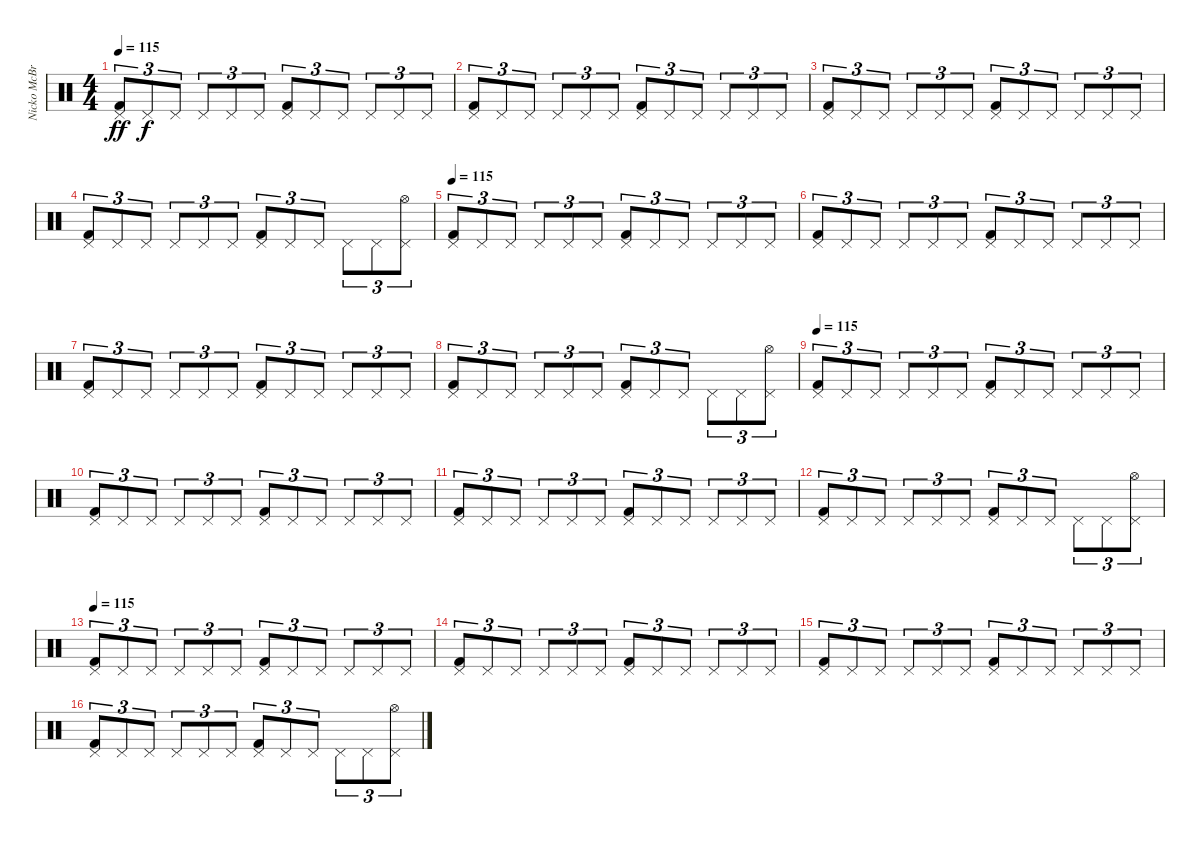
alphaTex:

\track ("Nicko McBrain" "Nicko McBr") {instrument percussion}
\staff {score}
\articulation defaults
\ts (4 4)
\tempo 115
\clef neutral
\ks c
("Pedal Hi-Hat (hit)" "Kick (hit) 2").8{tu (3 2) dy ff volume 5} "Pedal Hi-Hat (hit)".8{tu (3 2) dy f} "Pedal Hi-Hat (hit)".8{tu (3 2)} "Pedal Hi-Hat (hit)".8{tu (3 2)} "Pedal Hi-Hat (hit)".8{tu (3 2)} "Pedal Hi-Hat (hit)".8{tu (3 2)} ("Pedal Hi-Hat (hit)" "Kick (hit) 2").8{tu (3 2)} "Pedal Hi-Hat (hit)".8{tu (3 2)} "Pedal Hi-Hat (hit)".8{tu (3 2)} "Pedal Hi-Hat (hit)".8{tu (3 2)} "Pedal Hi-Hat (hit)".8{tu (3 2)} "Pedal Hi-Hat (hit)".8{tu (3 2)} |
("Pedal Hi-Hat (hit)" "Kick (hit) 2").8{tu (3 2) volume 6} "Pedal Hi-Hat (hit)".8{tu (3 2)} "Pedal Hi-Hat (hit)".8{tu (3 2)} "Pedal Hi-Hat (hit)".8{tu (3 2)} "Pedal Hi-Hat (hit)".8{tu (3 2)} "Pedal Hi-Hat (hit)".8{tu (3 2)} ("Pedal Hi-Hat (hit)" "Kick (hit) 2").8{tu (3 2)} "Pedal Hi-Hat (hit)".8{tu (3 2)} "Pedal Hi-Hat (hit)".8{tu (3 2)} "Pedal Hi-Hat (hit)".8{tu (3 2)} "Pedal Hi-Hat (hit)".8{tu (3 2)} "Pedal Hi-Hat (hit)".8{tu (3 2)} |
("Pedal Hi-Hat (hit)" "Kick (hit) 2").8{tu (3 2) volume 7} "Pedal Hi-Hat (hit)".8{tu (3 2)} "Pedal Hi-Hat (hit)".8{tu (3 2)} "Pedal Hi-Hat (hit)".8{tu (3 2)} "Pedal Hi-Hat (hit)".8{tu (3 2)} "Pedal Hi-Hat (hit)".8{tu (3 2)} ("Pedal Hi-Hat (hit)" "Kick (hit) 2").8{tu (3 2)} "Pedal Hi-Hat (hit)".8{tu (3 2)} "Pedal Hi-Hat (hit)".8{tu (3 2)} "Pedal Hi-Hat (hit)".8{tu (3 2)} "Pedal Hi-Hat (hit)".8{tu (3 2)} "Pedal Hi-Hat (hit)".8{tu (3 2)} |
("Pedal Hi-Hat (hit)" "Kick (hit) 2").8{tu (3 2)} "Pedal Hi-Hat (hit)".8{tu (3 2)} "Pedal Hi-Hat (hit)".8{tu (3 2)} "Pedal Hi-Hat (hit)".8{tu (3 2)} "Pedal Hi-Hat (hit)".8{tu (3 2)} "Pedal Hi-Hat (hit)".8{tu (3 2)} ("Pedal Hi-Hat (hit)" "Kick (hit) 2").8{tu (3 2)} "Pedal Hi-Hat (hit)".8{tu (3 2)} "Pedal Hi-Hat (hit)".8{tu (3 2)} "Pedal Hi-Hat (hit)".8{tu (3 2)} "Pedal Hi-Hat (hit)".8{tu (3 2)} ("Pedal Hi-Hat (hit)" "Hi-Hat (open)").8{tu (3 2)} |
\tempo 115
("Pedal Hi-Hat (hit)" "Kick (hit) 2").8{tu (3 2) volume 8} "Pedal Hi-Hat (hit)".8{tu (3 2)} "Pedal Hi-Hat (hit)".8{tu (3 2)} "Pedal Hi-Hat (hit)".8{tu (3 2)} "Pedal Hi-Hat (hit)".8{tu (3 2)} "Pedal Hi-Hat (hit)".8{tu (3 2)} ("Pedal Hi-Hat (hit)" "Kick (hit) 2").8{tu (3 2)} "Pedal Hi-Hat (hit)".8{tu (3 2)} "Pedal Hi-Hat (hit)".8{tu (3 2)} "Pedal Hi-Hat (hit)".8{tu (3 2)} "Pedal Hi-Hat (hit)".8{tu (3 2)} "Pedal Hi-Hat (hit)".8{tu (3 2)} |
("Pedal Hi-Hat (hit)" "Kick (hit) 2").8{tu (3 2)} "Pedal Hi-Hat (hit)".8{tu (3 2)} "Pedal Hi-Hat (hit)".8{tu (3 2)} "Pedal Hi-Hat (hit)".8{tu (3 2)} "Pedal Hi-Hat (hit)".8{tu (3 2)} "Pedal Hi-Hat (hit)".8{tu (3 2)} ("Pedal Hi-Hat (hit)" "Kick (hit) 2").8{tu (3 2)} "Pedal Hi-Hat (hit)".8{tu (3 2)} "Pedal Hi-Hat (hit)".8{tu (3 2)} "Pedal Hi-Hat (hit)".8{tu (3 2)} "Pedal Hi-Hat (hit)".8{tu (3 2)} "Pedal Hi-Hat (hit)".8{tu (3 2)} |
("Pedal Hi-Hat (hit)" "Kick (hit) 2").8{tu (3 2)} "Pedal Hi-Hat (hit)".8{tu (3 2)} "Pedal Hi-Hat (hit)".8{tu (3 2)} "Pedal Hi-Hat (hit)".8{tu (3 2)} "Pedal Hi-Hat (hit)".8{tu (3 2)} "Pedal Hi-Hat (hit)".8{tu (3 2)} ("Pedal Hi-Hat (hit)" "Kick (hit) 2").8{tu (3 2)} "Pedal Hi-Hat (hit)".8{tu (3 2)} "Pedal Hi-Hat (hit)".8{tu (3 2)} "Pedal Hi-Hat (hit)".8{tu (3 2)} "Pedal Hi-Hat (hit)".8{tu (3 2)} "Pedal Hi-Hat (hit)".8{tu (3 2)} |
("Pedal Hi-Hat (hit)" "Kick (hit) 2").8{tu (3 2)} "Pedal Hi-Hat (hit)".8{tu (3 2)} "Pedal Hi-Hat (hit)".8{tu (3 2)} "Pedal Hi-Hat (hit)".8{tu (3 2)} "Pedal Hi-Hat (hit)".8{tu (3 2)} "Pedal Hi-Hat (hit)".8{tu (3 2)} ("Pedal Hi-Hat (hit)" "Kick (hit) 2").8{tu (3 2)} "Pedal Hi-Hat (hit)".8{tu (3 2)} "Pedal Hi-Hat (hit)".8{tu (3 2)} "Pedal Hi-Hat (hit)".8{tu (3 2)} "Pedal Hi-Hat (hit)".8{tu (3 2)} ("Pedal Hi-Hat (hit)" "Hi-Hat (open)").8{tu (3 2)} |
\tempo 115
("Pedal Hi-Hat (hit)" "Kick (hit) 2").8{tu (3 2)} "Pedal Hi-Hat (hit)".8{tu (3 2)} "Pedal Hi-Hat (hit)".8{tu (3 2)} "Pedal Hi-Hat (hit)".8{tu (3 2)} "Pedal Hi-Hat (hit)".8{tu (3 2)} "Pedal Hi-Hat (hit)".8{tu (3 2)} ("Pedal Hi-Hat (hit)" "Kick (hit) 2").8{tu (3 2)} "Pedal Hi-Hat (hit)".8{tu (3 2)} "Pedal Hi-Hat (hit)".8{tu (3 2)} "Pedal Hi-Hat (hit)".8{tu (3 2)} "Pedal Hi-Hat (hit)".8{tu (3 2)} "Pedal Hi-Hat (hit)".8{tu (3 2)} |
("Pedal Hi-Hat (hit)" "Kick (hit) 2").8{tu (3 2)} "Pedal Hi-Hat (hit)".8{tu (3 2)} "Pedal Hi-Hat (hit)".8{tu (3 2)} "Pedal Hi-Hat (hit)".8{tu (3 2)} "Pedal Hi-Hat (hit)".8{tu (3 2)} "Pedal Hi-Hat (hit)".8{tu (3 2)} ("Pedal Hi-Hat (hit)" "Kick (hit) 2").8{tu (3 2)} "Pedal Hi-Hat (hit)".8{tu (3 2)} "Pedal Hi-Hat (hit)".8{tu (3 2)} "Pedal Hi-Hat (hit)".8{tu (3 2)} "Pedal Hi-Hat (hit)".8{tu (3 2)} "Pedal Hi-Hat (hit)".8{tu (3 2)} |
("Pedal Hi-Hat (hit)" "Kick (hit) 2").8{tu (3 2)} "Pedal Hi-Hat (hit)".8{tu (3 2)} "Pedal Hi-Hat (hit)".8{tu (3 2)} "Pedal Hi-Hat (hit)".8{tu (3 2)} "Pedal Hi-Hat (hit)".8{tu (3 2)} "Pedal Hi-Hat (hit)".8{tu (3 2)} ("Pedal Hi-Hat (hit)" "Kick (hit) 2").8{tu (3 2)} "Pedal Hi-Hat (hit)".8{tu (3 2)} "Pedal Hi-Hat (hit)".8{tu (3 2)} "Pedal Hi-Hat (hit)".8{tu (3 2)} "Pedal Hi-Hat (hit)".8{tu (3 2)} "Pedal Hi-Hat (hit)".8{tu (3 2)} |
("Pedal Hi-Hat (hit)" "Kick (hit) 2").8{tu (3 2)} "Pedal Hi-Hat (hit)".8{tu (3 2)} "Pedal Hi-Hat (hit)".8{tu (3 2)} "Pedal Hi-Hat (hit)".8{tu (3 2)} "Pedal Hi-Hat (hit)".8{tu (3 2)} "Pedal Hi-Hat (hit)".8{tu (3 2)} ("Pedal Hi-Hat (hit)" "Kick (hit) 2").8{tu (3 2)} "Pedal Hi-Hat (hit)".8{tu (3 2)} "Pedal Hi-Hat (hit)".8{tu (3 2)} "Pedal Hi-Hat (hit)".8{tu (3 2)} "Pedal Hi-Hat (hit)".8{tu (3 2)} ("Pedal Hi-Hat (hit)" "Hi-Hat (open)").8{tu (3 2)} |
\tempo 115
("Pedal Hi-Hat (hit)" "Kick (hit) 2").8{tu (3 2)} "Pedal Hi-Hat (hit)".8{tu (3 2)} "Pedal Hi-Hat (hit)".8{tu (3 2)} "Pedal Hi-Hat (hit)".8{tu (3 2)} "Pedal Hi-Hat (hit)".8{tu (3 2)} "Pedal Hi-Hat (hit)".8{tu (3 2)} ("Pedal Hi-Hat (hit)" "Kick (hit) 2").8{tu (3 2)} "Pedal Hi-Hat (hit)".8{tu (3 2)} "Pedal Hi-Hat (hit)".8{tu (3 2)} "Pedal Hi-Hat (hit)".8{tu (3 2)} "Pedal Hi-Hat (hit)".8{tu (3 2)} "Pedal Hi-Hat (hit)".8{tu (3 2)} |
("Pedal Hi-Hat (hit)" "Kick (hit) 2").8{tu (3 2)} "Pedal Hi-Hat (hit)".8{tu (3 2)} "Pedal Hi-Hat (hit)".8{tu (3 2)} "Pedal Hi-Hat (hit)".8{tu (3 2)} "Pedal Hi-Hat (hit)".8{tu (3 2)} "Pedal Hi-Hat (hit)".8{tu (3 2)} ("Pedal Hi-Hat (hit)" "Kick (hit) 2").8{tu (3 2)} "Pedal Hi-Hat (hit)".8{tu (3 2)} "Pedal Hi-Hat (hit)".8{tu (3 2)} "Pedal Hi-Hat (hit)".8{tu (3 2)} "Pedal Hi-Hat (hit)".8{tu (3 2)} "Pedal Hi-Hat (hit)".8{tu (3 2)} |
("Pedal Hi-Hat (hit)" "Kick (hit) 2").8{tu (3 2)} "Pedal Hi-Hat (hit)".8{tu (3 2)} "Pedal Hi-Hat (hit)".8{tu (3 2)} "Pedal Hi-Hat (hit)".8{tu (3 2)} "Pedal Hi-Hat (hit)".8{tu (3 2)} "Pedal Hi-Hat (hit)".8{tu (3 2)} ("Pedal Hi-Hat (hit)" "Kick (hit) 2").8{tu (3 2)} "Pedal Hi-Hat (hit)".8{tu (3 2)} "Pedal Hi-Hat (hit)".8{tu (3 2)} "Pedal Hi-Hat (hit)".8{tu (3 2)} "Pedal Hi-Hat (hit)".8{tu (3 2)} "Pedal Hi-Hat (hit)".8{tu (3 2)} |
("Pedal Hi-Hat (hit)" "Kick (hit) 2").8{tu (3 2)} "Pedal Hi-Hat (hit)".8{tu (3 2)} "Pedal Hi-Hat (hit)".8{tu (3 2)} "Pedal Hi-Hat (hit)".8{tu (3 2)} "Pedal Hi-Hat (hit)".8{tu (3 2)} "Pedal Hi-Hat (hit)".8{tu (3 2)} ("Pedal Hi-Hat (hit)" "Kick (hit) 2").8{tu (3 2)} "Pedal Hi-Hat (hit)".8{tu (3 2)} "Pedal Hi-Hat (hit)".8{tu (3 2)} "Pedal Hi-Hat (hit)".8{tu (3 2)} "Pedal Hi-Hat (hit)".8{tu (3 2)} ("Pedal Hi-Hat (hit)" "Hi-Hat (open)").8{tu (3 2)}
